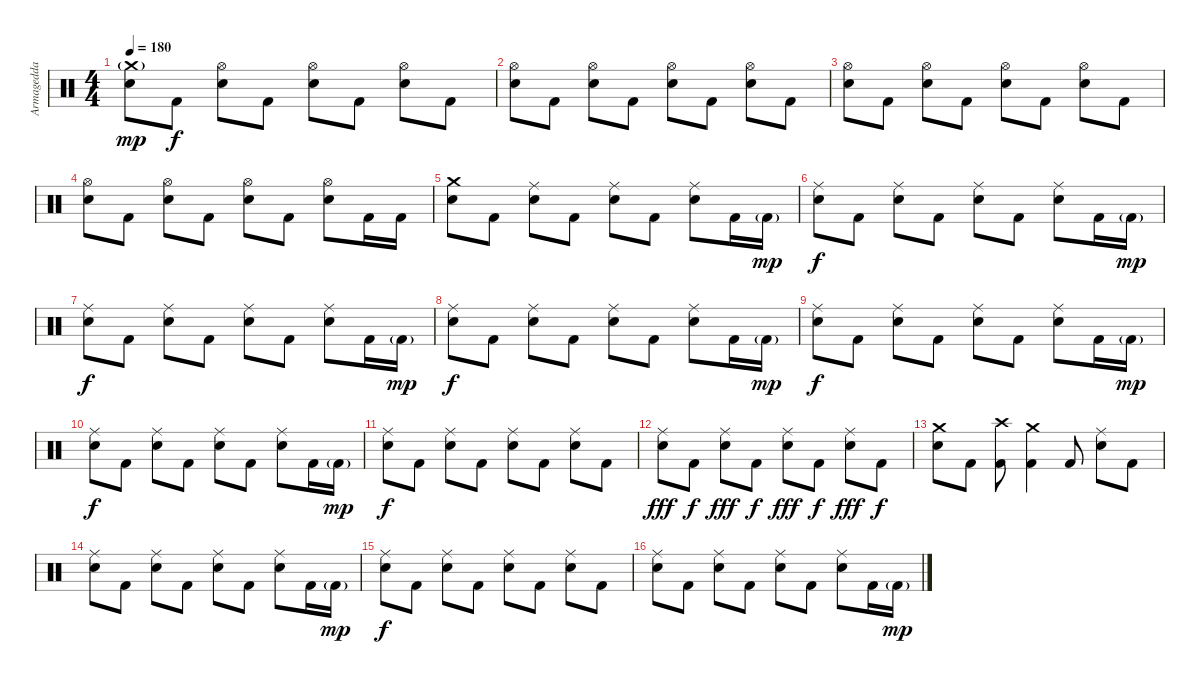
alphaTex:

\track ("Armagedda" "Armagedda") {instrument percussion}
\staff {score}
\articulation defaults
\ts (4 4)
\tempo 180
\clef neutral
\ks c
("Crash medium (hit)"{g} "Electric Snare (hit)").8{dy mp} "Kick (hit) 2".8{dy f} ("Hi-Hat (open)" "Electric Snare (hit)").8 "Kick (hit) 2".8 ("Hi-Hat (open)" "Electric Snare (hit)").8 "Kick (hit) 2".8 ("Hi-Hat (open)" "Electric Snare (hit)").8 "Kick (hit) 2".8 |
("Hi-Hat (open)" "Electric Snare (hit)").8 "Kick (hit) 2".8 ("Hi-Hat (open)" "Electric Snare (hit)").8 "Kick (hit) 2".8 ("Hi-Hat (open)" "Electric Snare (hit)").8 "Kick (hit) 2".8 ("Hi-Hat (open)" "Electric Snare (hit)").8 "Kick (hit) 2".8 |
("Hi-Hat (open)" "Electric Snare (hit)").8 "Kick (hit) 2".8 ("Hi-Hat (open)" "Electric Snare (hit)").8 "Kick (hit) 2".8 ("Hi-Hat (open)" "Electric Snare (hit)").8 "Kick (hit) 2".8 ("Hi-Hat (open)" "Electric Snare (hit)").8 "Kick (hit) 2".8 |
("Hi-Hat (open)" "Electric Snare (hit)").8 "Kick (hit) 2".8 ("Hi-Hat (open)" "Electric Snare (hit)").8 "Kick (hit) 2".8 ("Hi-Hat (open)" "Electric Snare (hit)").8 "Kick (hit) 2".8 ("Hi-Hat (open)" "Electric Snare (hit)").8 "Kick (hit) 2".16 "Kick (hit) 2".16 |
("Crash medium (hit)" "Electric Snare (hit)").8 "Kick (hit) 2".8 ("Ride (middle)" "Electric Snare (hit)").8 "Kick (hit) 2".8 ("Ride (middle)" "Electric Snare (hit)").8 "Kick (hit) 2".8 ("Ride (middle)" "Electric Snare (hit)").8 "Kick (hit) 2".16 "Kick (hit) 2"{g}.16{dy mp} |
("Ride (middle)" "Electric Snare (hit)").8{dy f} "Kick (hit) 2".8 ("Ride (middle)" "Electric Snare (hit)").8 "Kick (hit) 2".8 ("Ride (middle)" "Electric Snare (hit)").8 "Kick (hit) 2".8 ("Ride (middle)" "Electric Snare (hit)").8 "Kick (hit) 2".16 "Kick (hit) 2"{g}.16{dy mp} |
("Ride (middle)" "Electric Snare (hit)").8{dy f} "Kick (hit) 2".8 ("Ride (middle)" "Electric Snare (hit)").8 "Kick (hit) 2".8 ("Ride (middle)" "Electric Snare (hit)").8 "Kick (hit) 2".8 ("Ride (middle)" "Electric Snare (hit)").8 "Kick (hit) 2".16 "Kick (hit) 2"{g}.16{dy mp} |
("Ride (middle)" "Electric Snare (hit)").8{dy f} "Kick (hit) 2".8 ("Ride (middle)" "Electric Snare (hit)").8 "Kick (hit) 2".8 ("Ride (middle)" "Electric Snare (hit)").8 "Kick (hit) 2".8 ("Ride (middle)" "Electric Snare (hit)").8 "Kick (hit) 2".16 "Kick (hit) 2"{g}.16{dy mp} |
("Ride (middle)" "Electric Snare (hit)").8{dy f} "Kick (hit) 2".8 ("Ride (middle)" "Electric Snare (hit)").8 "Kick (hit) 2".8 ("Ride (middle)" "Electric Snare (hit)").8 "Kick (hit) 2".8 ("Ride (middle)" "Electric Snare (hit)").8 "Kick (hit) 2".16 "Kick (hit) 2"{g}.16{dy mp} |
("Ride (middle)" "Electric Snare (hit)").8{dy f} "Kick (hit) 2".8 ("Ride (middle)" "Electric Snare (hit)").8 "Kick (hit) 2".8 ("Ride (middle)" "Electric Snare (hit)").8 "Kick (hit) 2".8 ("Ride (middle)" "Electric Snare (hit)").8 "Kick (hit) 2".16 "Kick (hit) 2"{g}.16{dy mp} |
("Ride (middle)" "Electric Snare (hit)").8{dy f} "Kick (hit) 2".8 ("Ride (middle)" "Electric Snare (hit)").8 "Kick (hit) 2".8 ("Ride (middle)" "Electric Snare (hit)").8 "Kick (hit) 2".8 ("Ride (middle)" "Electric Snare (hit)").8 "Kick (hit) 2".8 |
("Ride (middle)" "Electric Snare (hit)").8{dy fff} "Kick (hit) 2".8{dy f} ("Ride (middle)" "Electric Snare (hit)").8{dy fff} "Kick (hit) 2".8{dy f} ("Ride (middle)" "Electric Snare (hit)").8{dy fff} "Kick (hit) 2".8{dy f} ("Ride (middle)" "Electric Snare (hit)").8{dy fff} "Kick (hit) 2".8{dy f} |
("Crash medium (hit)" "Electric Snare (hit)").8 "Kick (hit) 2".8 ("Crash high (hit)" "Kick (hit) 2").8 ("Crash medium (hit)" "Kick (hit) 2").4 "Kick (hit) 2".8 ("Ride (middle)" "Electric Snare (hit)").8 "Kick (hit) 2".8 |
("Ride (middle)" "Electric Snare (hit)").8 "Kick (hit) 2".8 ("Ride (middle)" "Electric Snare (hit)").8 "Kick (hit) 2".8 ("Ride (middle)" "Electric Snare (hit)").8 "Kick (hit) 2".8 ("Ride (middle)" "Electric Snare (hit)").8 "Kick (hit) 2".16 "Kick (hit) 2"{g}.16{dy mp} |
("Ride (middle)" "Electric Snare (hit)").8{dy f} "Kick (hit) 2".8 ("Ride (middle)" "Electric Snare (hit)").8 "Kick (hit) 2".8 ("Ride (middle)" "Electric Snare (hit)").8 "Kick (hit) 2".8 ("Ride (middle)" "Electric Snare (hit)").8 "Kick (hit) 2".8 |
("Ride (middle)" "Electric Snare (hit)").8 "Kick (hit) 2".8 ("Ride (middle)" "Electric Snare (hit)").8 "Kick (hit) 2".8 ("Ride (middle)" "Electric Snare (hit)").8 "Kick (hit) 2".8 ("Ride (middle)" "Electric Snare (hit)").8 "Kick (hit) 2".16 "Kick (hit) 2"{g}.16{dy mp}
